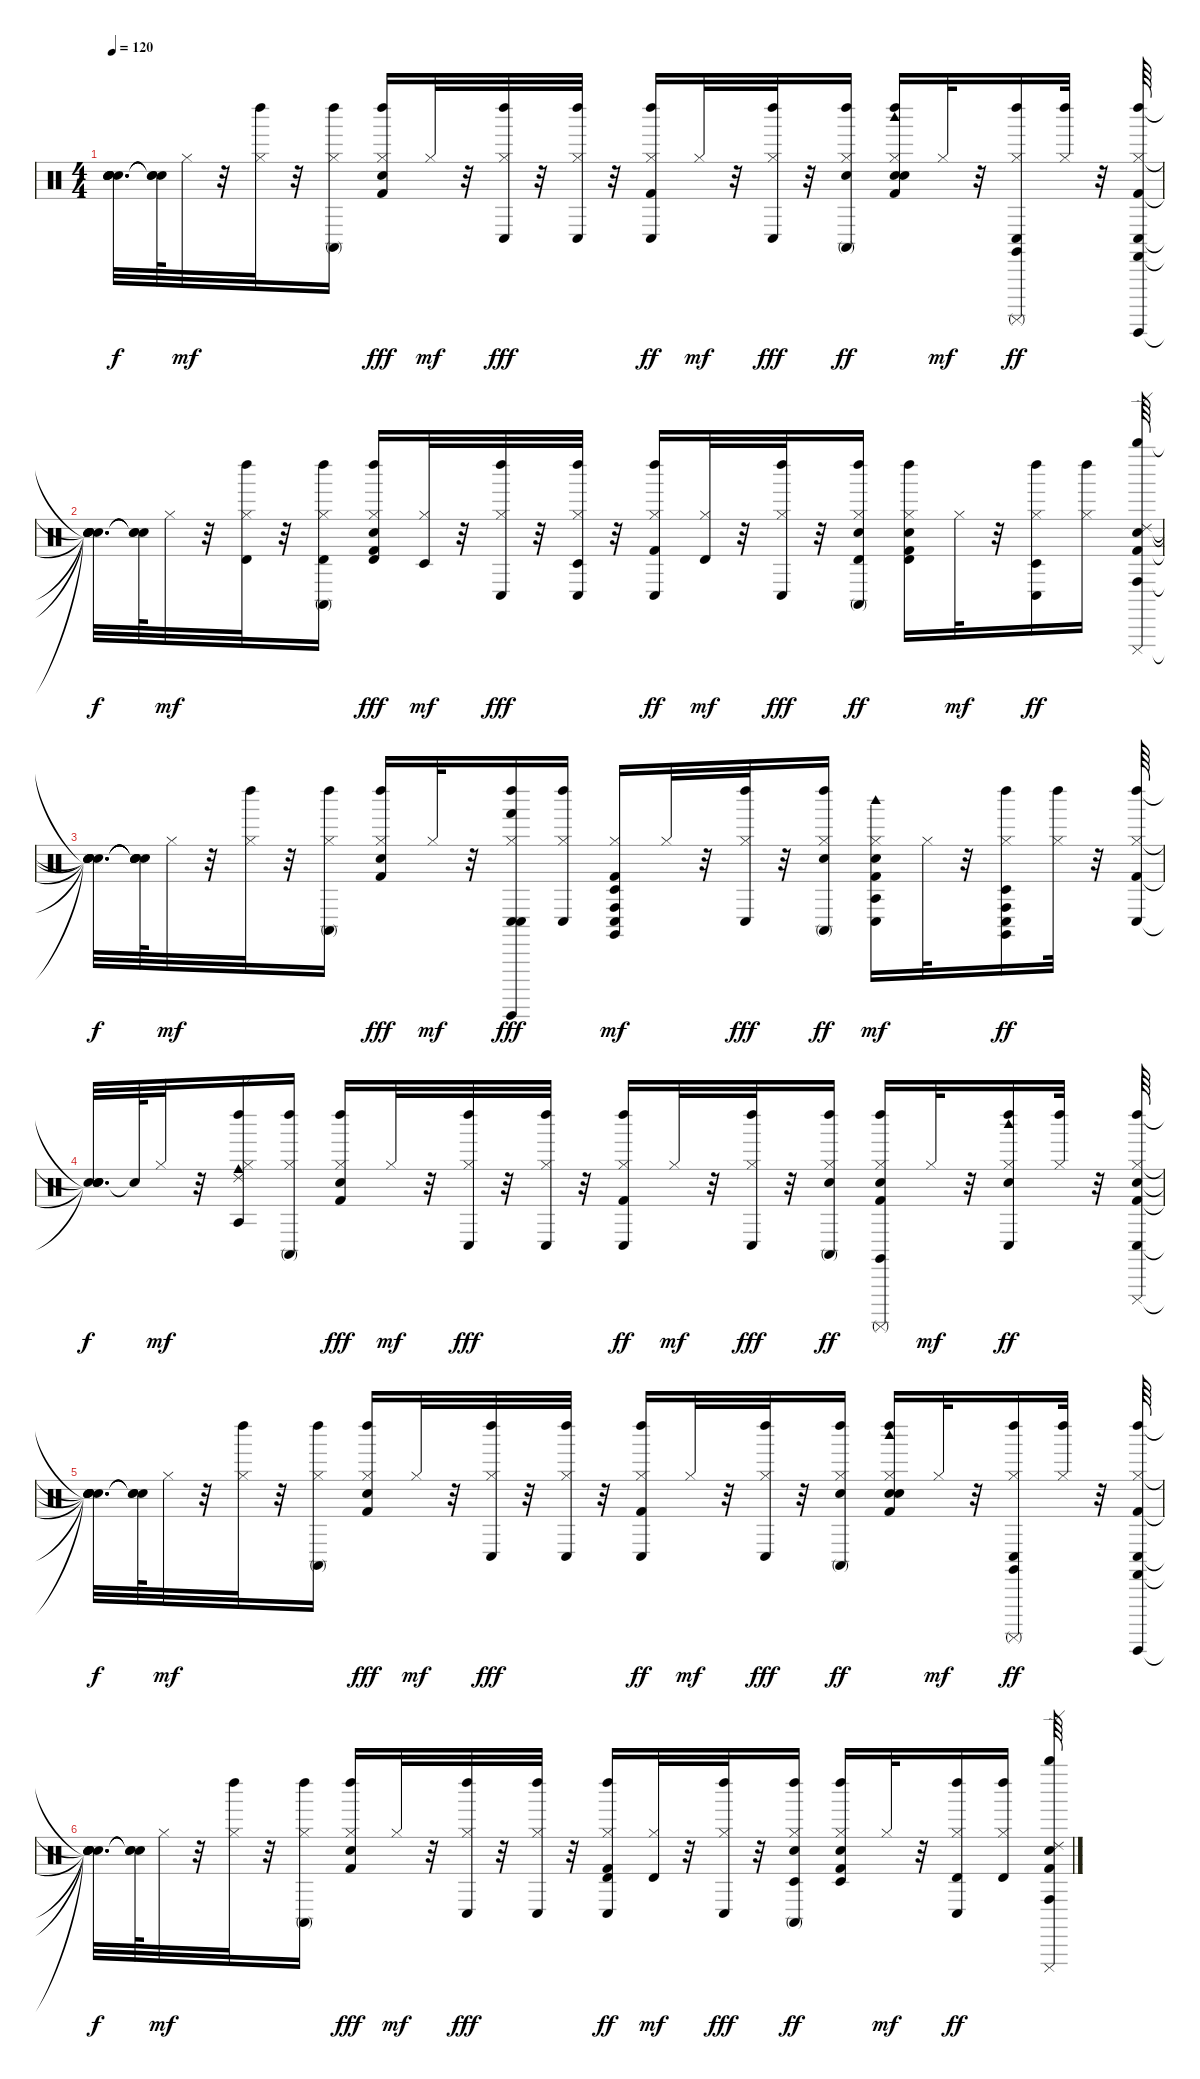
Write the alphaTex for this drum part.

\track "" {instrument percussion}
\staff {score}
\articulation defaults
\ts (4 4)
\tempo 120
\clef neutral
\ks c
("Snare (hit)"{t} "Snare (hit)"{t} "Snare (hit)"{t} "Snare (hit)"{t} "Snare (hit)"{t} "Snare (hit)"{t}).32{d dy f} ("Snare (hit)"{t} "Snare (hit)"{t} "Snare (hit)"{t}).64 "Hi-Hat (closed)".32{dy mf} r.32 ("Hi-Hat (closed)" "Left Maraca (hit)").32 r.32 ("Conga high (mute)" "Hi-Hat (closed)" "Left Maraca (hit)").16 ("Kick (hit) 2" "Electric Snare (hit)" "Hi-Hat (closed)" "Left Maraca (hit)").16{dy fff} "Hi-Hat (closed)".32{dy mf} r.32 ("Conga low (hit)" "Hi-Hat (closed)" "Left Maraca (hit)").32{dy fff} r.32 ("Conga low (hit)" "Hi-Hat (closed)" "Left Maraca (hit)").32 r.32 ("Kick (hit) 2" "Conga low (hit)" "Hi-Hat (closed)" "Left Maraca (hit)").16{dy ff} "Hi-Hat (closed)".32{dy mf} r.32 ("Conga low (hit)" "Hi-Hat (closed)" "Left Maraca (hit)").32{dy fff} r.32 ("Electric Snare (hit)" "Conga high (mute)" "Hi-Hat (closed)" "Left Maraca (hit)").16{dy ff} ("Woodblock high (hit)" "Snare (hit)" "Kick (hit) 2" "Electric Snare (hit)" "Hi-Hat (closed)" "Left Maraca (hit)").16 "Hi-Hat (closed)".32{dy mf} r.32 ("Claves (hit)" "Surdo (mute)" "Conga low (hit)" "Hi-Hat (closed)" "Left Maraca (hit)").16{dy ff} ("Hi-Hat (closed)" "Left Maraca (hit)").32 r.32 ("Guiro (hit)" "Castanets (hit)" "Kick (hit) 2" "Conga low (hit)" "Hi-Hat (closed)" "Left Maraca (hit)").64 |
("Snare (hit)"{t} "Snare (hit)"{t} "Snare (hit)"{t} "Snare (hit)"{t} "Snare (hit)"{t} "Snare (hit)"{t}).32{d dy f} ("Snare (hit)"{t} "Snare (hit)"{t} "Snare (hit)"{t}).64 "Hi-Hat (closed)".32{dy mf} r.32 ("Timbale high (hit)" "Hi-Hat (closed)" "Left Maraca (hit)").32 r.32 ("Timbale high (hit)" "Conga high (mute)" "Hi-Hat (closed)" "Left Maraca (hit)").16 ("Kick (hit) 2" "Electric Snare (hit)" "Timbale high (hit)" "Hi-Hat (closed)" "Left Maraca (hit)").16{dy fff} ("Timbale low (hit)" "Hi-Hat (closed)").32{dy mf} r.32 ("Conga low (hit)" "Hi-Hat (closed)" "Left Maraca (hit)").32{dy fff} r.32 ("Timbale low (hit)" "Conga low (hit)" "Hi-Hat (closed)" "Left Maraca (hit)").32 r.32 ("Kick (hit) 2" "Conga low (hit)" "Hi-Hat (closed)" "Left Maraca (hit)").16{dy ff} ("Timbale high (hit)" "Hi-Hat (closed)").32{dy mf} r.32 ("Conga low (hit)" "Hi-Hat (closed)" "Left Maraca (hit)").32{dy fff} r.32 ("Electric Snare (hit)" "Timbale high (hit)" "Conga high (mute)" "Hi-Hat (closed)" "Left Maraca (hit)").16{dy ff} ("Kick (hit) 2" "Electric Snare (hit)" "Timbale high (hit)" "Hi-Hat (closed)" "Left Maraca (hit)").16 "Hi-Hat (closed)".32{dy mf} r.32 ("Timbale low (hit)" "Conga low (hit)" "Hi-Hat (closed)" "Left Maraca (hit)").16{dy ff} ("Hi-Hat (closed)" "Left Maraca (hit)").16 ("Ride (edge) 2" "Conga high (hit)" "Whistle high (hit)" "Cuica (mute)" "Snare (hit)" "Kick (hit) 2").64 |
("Snare (hit)"{t} "Snare (hit)"{t} "Snare (hit)"{t} "Snare (hit)"{t} "Snare (hit)"{t} "Snare (hit)"{t}).32{d dy f} ("Snare (hit)"{t} "Snare (hit)"{t} "Snare (hit)"{t} "Snare (hit)"{t} "Snare (hit)"{t}).64 "Hi-Hat (closed)".32{dy mf} r.32 ("Hi-Hat (closed)" "Left Maraca (hit)").32 r.32 ("Conga high (mute)" "Hi-Hat (closed)" "Left Maraca (hit)").16 ("Kick (hit) 2" "Electric Snare (hit)" "Hi-Hat (closed)" "Left Maraca (hit)").16{dy fff} "Hi-Hat (closed)".32{dy mf} r.32 ("Hand (hit)" "Conga low (hit)" "Guiro (hit)" "Conga low (hit)" "Hi-Hat (closed)" "Left Maraca (hit)").16{dy fff} ("Conga low (hit)" "Hi-Hat (closed)" "Left Maraca (hit)").16 ("Conga high (hit)" "Timbale low (hit)" "Claves (hit)" "Kick (hit) 2" "Conga low (hit)" "Hi-Hat (closed)").16{dy mf} "Hi-Hat (closed)".32 r.32 ("Conga low (hit)" "Hi-Hat (closed)" "Left Maraca (hit)").32{dy fff} r.32 ("Electric Snare (hit)" "Conga high (mute)" "Hi-Hat (closed)" "Left Maraca (hit)").16{dy ff} ("Conga low (hit)" "Agogo tow (hit)" "Woodblock high (hit)" "Kick (hit) 2" "Electric Snare (hit)" "Hi-Hat (closed)").16{dy mf} "Hi-Hat (closed)".32 r.32 ("Conga high (hit)" "Timbale low (hit)" "Claves (hit)" "Conga low (hit)" "Hi-Hat (closed)" "Left Maraca (hit)").16{dy ff} ("Hi-Hat (closed)" "Left Maraca (hit)").32 r.32 ("Kick (hit) 2" "Conga low (hit)" "Hi-Hat (closed)" "Left Maraca (hit)").64 |
("Snare (hit)"{t} "Snare (hit)"{t} "Snare (hit)"{t} "Snare (hit)"{t}).32{d dy f} "Snare (hit)"{t}.64 "Hi-Hat (closed)".32{dy mf} r.32 ("Cowbell medium (hit)" "Ride (edge) 2" "Agogo tow (hit)" "Hi-Hat (closed)" "Left Maraca (hit)").16 ("Conga high (mute)" "Hi-Hat (closed)" "Left Maraca (hit)").16 ("Kick (hit) 2" "Electric Snare (hit)" "Hi-Hat (closed)" "Left Maraca (hit)").16{dy fff} "Hi-Hat (closed)".32{dy mf} r.32 ("Conga low (hit)" "Hi-Hat (closed)" "Left Maraca (hit)").32{dy fff} r.32 ("Conga low (hit)" "Hi-Hat (closed)" "Left Maraca (hit)").32 r.32 ("Kick (hit) 2" "Conga low (hit)" "Hi-Hat (closed)" "Left Maraca (hit)").16{dy ff} "Hi-Hat (closed)".32{dy mf} r.32 ("Conga low (hit)" "Hi-Hat (closed)" "Left Maraca (hit)").32{dy fff} r.32 ("Electric Snare (hit)" "Conga high (mute)" "Hi-Hat (closed)" "Left Maraca (hit)").16{dy ff} ("Claves (hit)" "Surdo (mute)" "Kick (hit) 2" "Electric Snare (hit)" "Hi-Hat (closed)" "Left Maraca (hit)").16 "Hi-Hat (closed)".32{dy mf} r.32 ("Woodblock high (hit)" "Snare (hit)" "Conga low (hit)" "Hi-Hat (closed)" "Left Maraca (hit)").16{dy ff} ("Hi-Hat (closed)" "Left Maraca (hit)").32 r.32 ("Cuica (mute)" "Snare (hit)" "Kick (hit) 2" "Conga low (hit)" "Hi-Hat (closed)" "Left Maraca (hit)").64 |
("Snare (hit)"{t} "Snare (hit)"{t} "Snare (hit)"{t} "Snare (hit)"{t} "Snare (hit)"{t} "Snare (hit)"{t}).32{d dy f} ("Snare (hit)"{t} "Snare (hit)"{t} "Snare (hit)"{t}).64 "Hi-Hat (closed)".32{dy mf} r.32 ("Hi-Hat (closed)" "Left Maraca (hit)").32 r.32 ("Conga high (mute)" "Hi-Hat (closed)" "Left Maraca (hit)").16 ("Kick (hit) 2" "Electric Snare (hit)" "Hi-Hat (closed)" "Left Maraca (hit)").16{dy fff} "Hi-Hat (closed)".32{dy mf} r.32 ("Conga low (hit)" "Hi-Hat (closed)" "Left Maraca (hit)").32{dy fff} r.32 ("Conga low (hit)" "Hi-Hat (closed)" "Left Maraca (hit)").32 r.32 ("Kick (hit) 2" "Conga low (hit)" "Hi-Hat (closed)" "Left Maraca (hit)").16{dy ff} "Hi-Hat (closed)".32{dy mf} r.32 ("Conga low (hit)" "Hi-Hat (closed)" "Left Maraca (hit)").32{dy fff} r.32 ("Electric Snare (hit)" "Conga high (mute)" "Hi-Hat (closed)" "Left Maraca (hit)").16{dy ff} ("Woodblock high (hit)" "Snare (hit)" "Kick (hit) 2" "Electric Snare (hit)" "Hi-Hat (closed)" "Left Maraca (hit)").16 "Hi-Hat (closed)".32{dy mf} r.32 ("Claves (hit)" "Surdo (mute)" "Conga low (hit)" "Hi-Hat (closed)" "Left Maraca (hit)").16{dy ff} ("Hi-Hat (closed)" "Left Maraca (hit)").32 r.32 ("Guiro (hit)" "Castanets (hit)" "Kick (hit) 2" "Conga low (hit)" "Hi-Hat (closed)" "Left Maraca (hit)").64 |
("Snare (hit)"{t} "Snare (hit)"{t} "Snare (hit)"{t} "Snare (hit)"{t} "Snare (hit)"{t} "Snare (hit)"{t}).32{d dy f} ("Snare (hit)"{t} "Snare (hit)"{t} "Snare (hit)"{t}).64 "Hi-Hat (closed)".32{dy mf} r.32 ("Hi-Hat (closed)" "Left Maraca (hit)").32 r.32 ("Conga high (mute)" "Hi-Hat (closed)" "Left Maraca (hit)").16 ("Kick (hit) 2" "Electric Snare (hit)" "Hi-Hat (closed)" "Left Maraca (hit)").16{dy fff} "Hi-Hat (closed)".32{dy mf} r.32 ("Conga low (hit)" "Hi-Hat (closed)" "Left Maraca (hit)").32{dy fff} r.32 ("Conga low (hit)" "Hi-Hat (closed)" "Left Maraca (hit)").32 r.32 ("Kick (hit) 2" "Timbale high (hit)" "Conga low (hit)" "Hi-Hat (closed)" "Left Maraca (hit)").16{dy ff} ("Timbale high (hit)" "Hi-Hat (closed)").32{dy mf} r.32 ("Conga low (hit)" "Hi-Hat (closed)" "Left Maraca (hit)").32{dy fff} r.32 ("Electric Snare (hit)" "Timbale low (hit)" "Conga high (mute)" "Hi-Hat (closed)" "Left Maraca (hit)").16{dy ff} ("Kick (hit) 2" "Electric Snare (hit)" "Timbale low (hit)" "Hi-Hat (closed)" "Left Maraca (hit)").16 "Hi-Hat (closed)".32{dy mf} r.32 ("Timbale high (hit)" "Conga low (hit)" "Hi-Hat (closed)" "Left Maraca (hit)").16{dy ff} ("Timbale high (hit)" "Hi-Hat (closed)" "Left Maraca (hit)").16 ("Ride (edge) 2" "Conga high (hit)" "Whistle high (hit)" "Cuica (mute)" "Snare (hit)" "Kick (hit) 2").64
